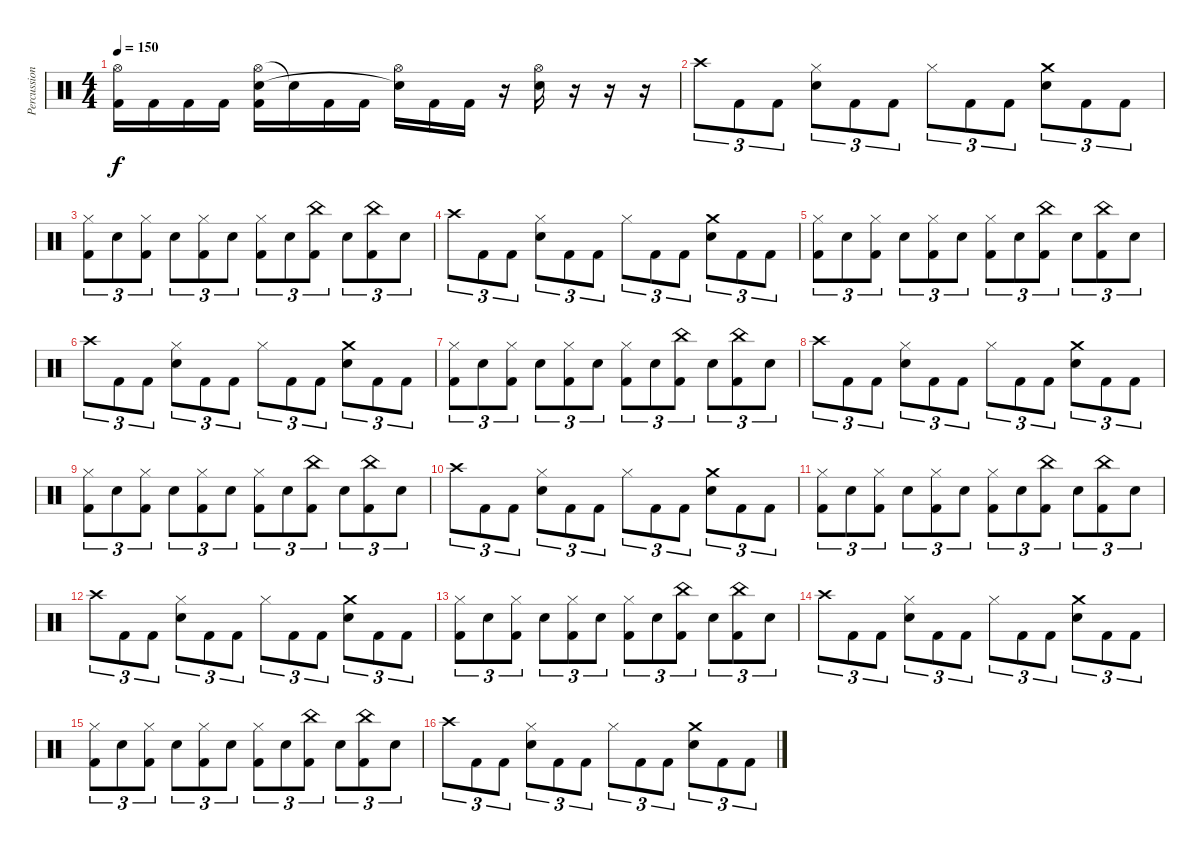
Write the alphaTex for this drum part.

\track ("Percussion" "Percussion") {instrument percussion}
\staff {score}
\articulation defaults
\ts (4 4)
\tempo 150
\clef neutral
\ks c
("Hi-Hat (open)" "Kick (hit) 2").16{dy f} "Kick (hit) 2".16 "Kick (hit) 2".16 "Kick (hit) 2".16 ("Hi-Hat (open)" "Electric Snare (hit)" "Kick (hit) 2").16 "Snare (hit)"{t}.16 "Kick (hit) 2".16 "Kick (hit) 2".16 ("Hi-Hat (open)" "Snare (hit)"{t}).16 "Kick (hit) 2".16 "Kick (hit) 2".16 r.16 ("Hi-Hat (open)" "Electric Snare (hit)").16 r.16 r.16 r.16 |
"Crash high (hit)".8{tu (3 2)} "Kick (hit) 2".8{tu (3 2)} "Kick (hit) 2".8{tu (3 2)} ("Hi-Hat (closed)" "Electric Snare (hit)").8{tu (3 2)} "Kick (hit) 2".8{tu (3 2)} "Kick (hit) 2".8{tu (3 2)} "Hi-Hat (closed)".8{tu (3 2)} "Kick (hit) 2".8{tu (3 2)} "Kick (hit) 2".8{tu (3 2)} ("Crash medium (hit)" "Electric Snare (hit)").8{tu (3 2)} "Kick (hit) 2".8{tu (3 2)} "Kick (hit) 2".8{tu (3 2)} |
("Hi-Hat (closed)" "Kick (hit) 2").8{tu (3 2)} "Electric Snare (hit)".8{tu (3 2)} ("Hi-Hat (closed)" "Kick (hit) 2").8{tu (3 2)} "Electric Snare (hit)".8{tu (3 2)} ("Hi-Hat (closed)" "Kick (hit) 2").8{tu (3 2)} "Electric Snare (hit)".8{tu (3 2)} ("Hi-Hat (closed)" "Kick (hit) 2").8{tu (3 2)} "Electric Snare (hit)".8{tu (3 2)} ("China (hit)" "Kick (hit) 2").8{tu (3 2)} "Electric Snare (hit)".8{tu (3 2)} ("China (hit)" "Kick (hit) 2").8{tu (3 2)} "Electric Snare (hit)".8{tu (3 2)} |
"Crash high (hit)".8{tu (3 2)} "Kick (hit) 2".8{tu (3 2)} "Kick (hit) 2".8{tu (3 2)} ("Hi-Hat (closed)" "Electric Snare (hit)").8{tu (3 2)} "Kick (hit) 2".8{tu (3 2)} "Kick (hit) 2".8{tu (3 2)} "Hi-Hat (closed)".8{tu (3 2)} "Kick (hit) 2".8{tu (3 2)} "Kick (hit) 2".8{tu (3 2)} ("Crash medium (hit)" "Electric Snare (hit)").8{tu (3 2)} "Kick (hit) 2".8{tu (3 2)} "Kick (hit) 2".8{tu (3 2)} |
("Hi-Hat (closed)" "Kick (hit) 2").8{tu (3 2)} "Electric Snare (hit)".8{tu (3 2)} ("Hi-Hat (closed)" "Kick (hit) 2").8{tu (3 2)} "Electric Snare (hit)".8{tu (3 2)} ("Hi-Hat (closed)" "Kick (hit) 2").8{tu (3 2)} "Electric Snare (hit)".8{tu (3 2)} ("Hi-Hat (closed)" "Kick (hit) 2").8{tu (3 2)} "Electric Snare (hit)".8{tu (3 2)} ("China (hit)" "Kick (hit) 2").8{tu (3 2)} "Electric Snare (hit)".8{tu (3 2)} ("China (hit)" "Kick (hit) 2").8{tu (3 2)} "Electric Snare (hit)".8{tu (3 2)} |
"Crash high (hit)".8{tu (3 2)} "Kick (hit) 2".8{tu (3 2)} "Kick (hit) 2".8{tu (3 2)} ("Hi-Hat (closed)" "Electric Snare (hit)").8{tu (3 2)} "Kick (hit) 2".8{tu (3 2)} "Kick (hit) 2".8{tu (3 2)} "Hi-Hat (closed)".8{tu (3 2)} "Kick (hit) 2".8{tu (3 2)} "Kick (hit) 2".8{tu (3 2)} ("Crash medium (hit)" "Electric Snare (hit)").8{tu (3 2)} "Kick (hit) 2".8{tu (3 2)} "Kick (hit) 2".8{tu (3 2)} |
("Hi-Hat (closed)" "Kick (hit) 2").8{tu (3 2)} "Electric Snare (hit)".8{tu (3 2)} ("Hi-Hat (closed)" "Kick (hit) 2").8{tu (3 2)} "Electric Snare (hit)".8{tu (3 2)} ("Hi-Hat (closed)" "Kick (hit) 2").8{tu (3 2)} "Electric Snare (hit)".8{tu (3 2)} ("Hi-Hat (closed)" "Kick (hit) 2").8{tu (3 2)} "Electric Snare (hit)".8{tu (3 2)} ("China (hit)" "Kick (hit) 2").8{tu (3 2)} "Electric Snare (hit)".8{tu (3 2)} ("China (hit)" "Kick (hit) 2").8{tu (3 2)} "Electric Snare (hit)".8{tu (3 2)} |
"Crash high (hit)".8{tu (3 2)} "Kick (hit) 2".8{tu (3 2)} "Kick (hit) 2".8{tu (3 2)} ("Hi-Hat (closed)" "Electric Snare (hit)").8{tu (3 2)} "Kick (hit) 2".8{tu (3 2)} "Kick (hit) 2".8{tu (3 2)} "Hi-Hat (closed)".8{tu (3 2)} "Kick (hit) 2".8{tu (3 2)} "Kick (hit) 2".8{tu (3 2)} ("Crash medium (hit)" "Electric Snare (hit)").8{tu (3 2)} "Kick (hit) 2".8{tu (3 2)} "Kick (hit) 2".8{tu (3 2)} |
("Hi-Hat (closed)" "Kick (hit) 2").8{tu (3 2)} "Electric Snare (hit)".8{tu (3 2)} ("Hi-Hat (closed)" "Kick (hit) 2").8{tu (3 2)} "Electric Snare (hit)".8{tu (3 2)} ("Hi-Hat (closed)" "Kick (hit) 2").8{tu (3 2)} "Electric Snare (hit)".8{tu (3 2)} ("Hi-Hat (closed)" "Kick (hit) 2").8{tu (3 2)} "Electric Snare (hit)".8{tu (3 2)} ("China (hit)" "Kick (hit) 2").8{tu (3 2)} "Electric Snare (hit)".8{tu (3 2)} ("China (hit)" "Kick (hit) 2").8{tu (3 2)} "Electric Snare (hit)".8{tu (3 2)} |
"Crash high (hit)".8{tu (3 2)} "Kick (hit) 2".8{tu (3 2)} "Kick (hit) 2".8{tu (3 2)} ("Hi-Hat (closed)" "Electric Snare (hit)").8{tu (3 2)} "Kick (hit) 2".8{tu (3 2)} "Kick (hit) 2".8{tu (3 2)} "Hi-Hat (closed)".8{tu (3 2)} "Kick (hit) 2".8{tu (3 2)} "Kick (hit) 2".8{tu (3 2)} ("Crash medium (hit)" "Electric Snare (hit)").8{tu (3 2)} "Kick (hit) 2".8{tu (3 2)} "Kick (hit) 2".8{tu (3 2)} |
("Hi-Hat (closed)" "Kick (hit) 2").8{tu (3 2)} "Electric Snare (hit)".8{tu (3 2)} ("Hi-Hat (closed)" "Kick (hit) 2").8{tu (3 2)} "Electric Snare (hit)".8{tu (3 2)} ("Hi-Hat (closed)" "Kick (hit) 2").8{tu (3 2)} "Electric Snare (hit)".8{tu (3 2)} ("Hi-Hat (closed)" "Kick (hit) 2").8{tu (3 2)} "Electric Snare (hit)".8{tu (3 2)} ("China (hit)" "Kick (hit) 2").8{tu (3 2)} "Electric Snare (hit)".8{tu (3 2)} ("China (hit)" "Kick (hit) 2").8{tu (3 2)} "Electric Snare (hit)".8{tu (3 2)} |
"Crash high (hit)".8{tu (3 2)} "Kick (hit) 2".8{tu (3 2)} "Kick (hit) 2".8{tu (3 2)} ("Hi-Hat (closed)" "Electric Snare (hit)").8{tu (3 2)} "Kick (hit) 2".8{tu (3 2)} "Kick (hit) 2".8{tu (3 2)} "Hi-Hat (closed)".8{tu (3 2)} "Kick (hit) 2".8{tu (3 2)} "Kick (hit) 2".8{tu (3 2)} ("Crash medium (hit)" "Electric Snare (hit)").8{tu (3 2)} "Kick (hit) 2".8{tu (3 2)} "Kick (hit) 2".8{tu (3 2)} |
("Hi-Hat (closed)" "Kick (hit) 2").8{tu (3 2)} "Electric Snare (hit)".8{tu (3 2)} ("Hi-Hat (closed)" "Kick (hit) 2").8{tu (3 2)} "Electric Snare (hit)".8{tu (3 2)} ("Hi-Hat (closed)" "Kick (hit) 2").8{tu (3 2)} "Electric Snare (hit)".8{tu (3 2)} ("Hi-Hat (closed)" "Kick (hit) 2").8{tu (3 2)} "Electric Snare (hit)".8{tu (3 2)} ("China (hit)" "Kick (hit) 2").8{tu (3 2)} "Electric Snare (hit)".8{tu (3 2)} ("China (hit)" "Kick (hit) 2").8{tu (3 2)} "Electric Snare (hit)".8{tu (3 2)} |
"Crash high (hit)".8{tu (3 2)} "Kick (hit) 2".8{tu (3 2)} "Kick (hit) 2".8{tu (3 2)} ("Hi-Hat (closed)" "Electric Snare (hit)").8{tu (3 2)} "Kick (hit) 2".8{tu (3 2)} "Kick (hit) 2".8{tu (3 2)} "Hi-Hat (closed)".8{tu (3 2)} "Kick (hit) 2".8{tu (3 2)} "Kick (hit) 2".8{tu (3 2)} ("Crash medium (hit)" "Electric Snare (hit)").8{tu (3 2)} "Kick (hit) 2".8{tu (3 2)} "Kick (hit) 2".8{tu (3 2)} |
("Hi-Hat (closed)" "Kick (hit) 2").8{tu (3 2)} "Electric Snare (hit)".8{tu (3 2)} ("Hi-Hat (closed)" "Kick (hit) 2").8{tu (3 2)} "Electric Snare (hit)".8{tu (3 2)} ("Hi-Hat (closed)" "Kick (hit) 2").8{tu (3 2)} "Electric Snare (hit)".8{tu (3 2)} ("Hi-Hat (closed)" "Kick (hit) 2").8{tu (3 2)} "Electric Snare (hit)".8{tu (3 2)} ("China (hit)" "Kick (hit) 2").8{tu (3 2)} "Electric Snare (hit)".8{tu (3 2)} ("China (hit)" "Kick (hit) 2").8{tu (3 2)} "Electric Snare (hit)".8{tu (3 2)} |
"Crash high (hit)".8{tu (3 2)} "Kick (hit) 2".8{tu (3 2)} "Kick (hit) 2".8{tu (3 2)} ("Hi-Hat (closed)" "Electric Snare (hit)").8{tu (3 2)} "Kick (hit) 2".8{tu (3 2)} "Kick (hit) 2".8{tu (3 2)} "Hi-Hat (closed)".8{tu (3 2)} "Kick (hit) 2".8{tu (3 2)} "Kick (hit) 2".8{tu (3 2)} ("Crash medium (hit)" "Electric Snare (hit)").8{tu (3 2)} "Kick (hit) 2".8{tu (3 2)} "Kick (hit) 2".8{tu (3 2)}
